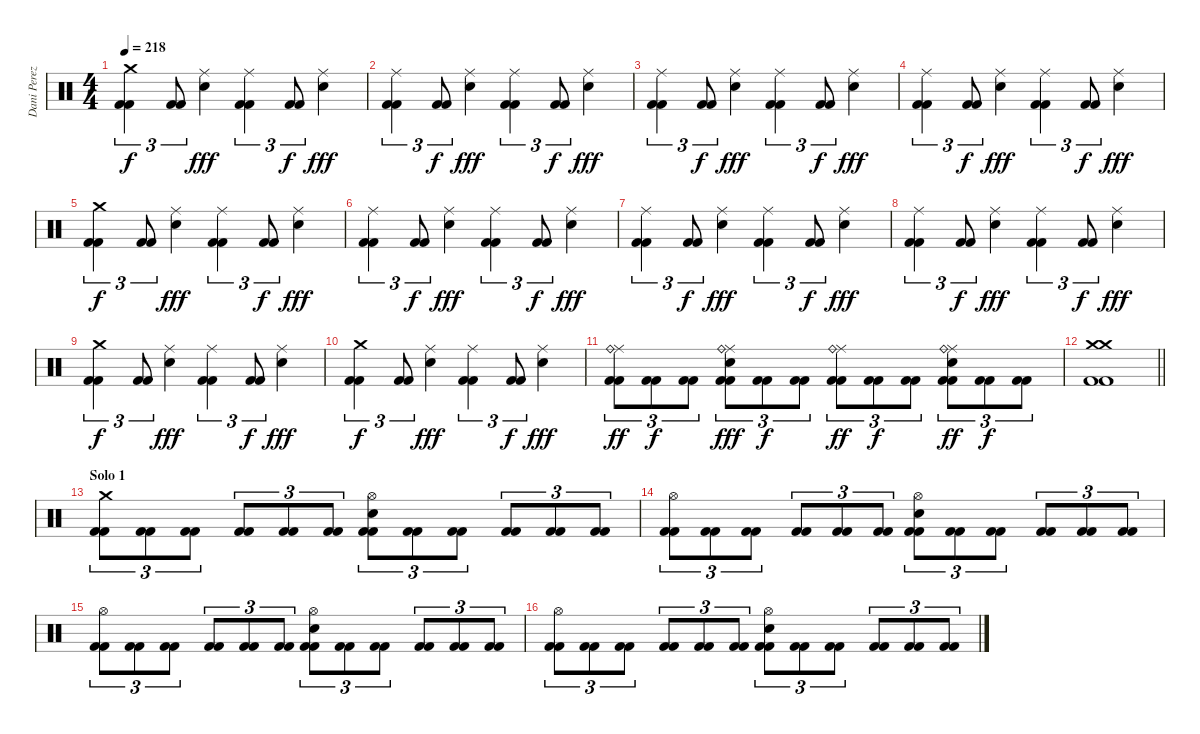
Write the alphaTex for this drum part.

\track ("Dani Perez" "Dani Perez") {instrument percussion}
\staff {score}
\articulation defaults
\ts (4 4)
\tempo 218
\clef neutral
\ks c
("Crash medium (hit)" "Kick (hit) 2" "Kick (hit) 2").4{tu (3 2) dy f} ("Kick (hit) 2" "Kick (hit) 2").8{tu (3 2)} ("Ride (middle)" "Snare (hit) 2").4{dy fff} ("Ride (middle)" "Kick (hit) 2" "Kick (hit) 2").4{tu (3 2)} ("Kick (hit) 2" "Kick (hit) 2").8{tu (3 2) dy f} ("Ride (middle)" "Snare (hit) 2").4{dy fff} |
("Ride (middle)" "Kick (hit) 2" "Kick (hit) 2").4{tu (3 2)} ("Kick (hit) 2" "Kick (hit) 2").8{tu (3 2) dy f} ("Ride (middle)" "Snare (hit) 2").4{dy fff} ("Ride (middle)" "Kick (hit) 2" "Kick (hit) 2").4{tu (3 2)} ("Kick (hit) 2" "Kick (hit) 2").8{tu (3 2) dy f} ("Ride (middle)" "Snare (hit) 2").4{dy fff} |
("Ride (middle)" "Kick (hit) 2" "Kick (hit) 2").4{tu (3 2)} ("Kick (hit) 2" "Kick (hit) 2").8{tu (3 2) dy f} ("Ride (middle)" "Snare (hit) 2").4{dy fff} ("Ride (middle)" "Kick (hit) 2" "Kick (hit) 2").4{tu (3 2)} ("Kick (hit) 2" "Kick (hit) 2").8{tu (3 2) dy f} ("Ride (middle)" "Snare (hit) 2").4{dy fff} |
("Ride (middle)" "Kick (hit) 2" "Kick (hit) 2").4{tu (3 2)} ("Kick (hit) 2" "Kick (hit) 2").8{tu (3 2) dy f} ("Ride (middle)" "Snare (hit) 2").4{dy fff} ("Ride (middle)" "Kick (hit) 2" "Kick (hit) 2").4{tu (3 2)} ("Kick (hit) 2" "Kick (hit) 2").8{tu (3 2) dy f} ("Ride (middle)" "Snare (hit) 2").4{dy fff} |
("Crash medium (hit)" "Kick (hit) 2" "Kick (hit) 2").4{tu (3 2) dy f} ("Kick (hit) 2" "Kick (hit) 2").8{tu (3 2)} ("Ride (middle)" "Snare (hit) 2").4{dy fff} ("Ride (middle)" "Kick (hit) 2" "Kick (hit) 2").4{tu (3 2)} ("Kick (hit) 2" "Kick (hit) 2").8{tu (3 2) dy f} ("Ride (middle)" "Snare (hit) 2").4{dy fff} |
("Ride (middle)" "Kick (hit) 2" "Kick (hit) 2").4{tu (3 2)} ("Kick (hit) 2" "Kick (hit) 2").8{tu (3 2) dy f} ("Ride (middle)" "Snare (hit) 2").4{dy fff} ("Ride (middle)" "Kick (hit) 2" "Kick (hit) 2").4{tu (3 2)} ("Kick (hit) 2" "Kick (hit) 2").8{tu (3 2) dy f} ("Ride (middle)" "Snare (hit) 2").4{dy fff} |
("Ride (middle)" "Kick (hit) 2" "Kick (hit) 2").4{tu (3 2)} ("Kick (hit) 2" "Kick (hit) 2").8{tu (3 2) dy f} ("Ride (middle)" "Snare (hit) 2").4{dy fff} ("Ride (middle)" "Kick (hit) 2" "Kick (hit) 2").4{tu (3 2)} ("Kick (hit) 2" "Kick (hit) 2").8{tu (3 2) dy f} ("Ride (middle)" "Snare (hit) 2").4{dy fff} |
("Ride (middle)" "Kick (hit) 2" "Kick (hit) 2").4{tu (3 2)} ("Kick (hit) 2" "Kick (hit) 2").8{tu (3 2) dy f} ("Ride (middle)" "Snare (hit) 2").4{dy fff} ("Ride (middle)" "Kick (hit) 2" "Kick (hit) 2").4{tu (3 2)} ("Kick (hit) 2" "Kick (hit) 2").8{tu (3 2) dy f} ("Ride (middle)" "Snare (hit) 2").4{dy fff} |
("Crash medium (hit)" "Kick (hit) 2" "Kick (hit) 2").4{tu (3 2) dy f} ("Kick (hit) 2" "Kick (hit) 2").8{tu (3 2)} ("Ride (middle)" "Snare (hit) 2").4{dy fff} ("Ride (middle)" "Kick (hit) 2" "Kick (hit) 2").4{tu (3 2)} ("Kick (hit) 2" "Kick (hit) 2").8{tu (3 2) dy f} ("Ride (middle)" "Snare (hit) 2").4{dy fff} |
("Crash medium (hit)" "Kick (hit) 2" "Kick (hit) 2").4{tu (3 2) dy f} ("Kick (hit) 2" "Kick (hit) 2").8{tu (3 2)} ("Ride (middle)" "Snare (hit) 2").4{dy fff} ("Ride (middle)" "Kick (hit) 2" "Kick (hit) 2").4{tu (3 2)} ("Kick (hit) 2" "Kick (hit) 2").8{tu (3 2) dy f} ("Ride (middle)" "Snare (hit) 2").4{dy fff} |
("Ride (middle)" "Ride (bell)" "Kick (hit) 2" "Kick (hit) 2").8{tu (3 2) dy ff} ("Kick (hit) 2" "Kick (hit) 2").8{tu (3 2) dy f} ("Kick (hit) 2" "Kick (hit) 2").8{tu (3 2)} ("Ride (middle)" "Ride (bell)" "Snare (hit) 2" "Kick (hit) 2" "Kick (hit) 2").8{tu (3 2) dy fff} ("Kick (hit) 2" "Kick (hit) 2").8{tu (3 2) dy f} ("Kick (hit) 2" "Kick (hit) 2").8{tu (3 2)} ("Ride (middle)" "Ride (bell)" "Kick (hit) 2" "Kick (hit) 2").8{tu (3 2) dy ff} ("Kick (hit) 2" "Kick (hit) 2").8{tu (3 2) dy f} ("Kick (hit) 2" "Kick (hit) 2").8{tu (3 2)} ("Ride (middle)" "Ride (bell)" "Snare (hit) 2" "Kick (hit) 2" "Kick (hit) 2").8{tu (3 2) dy ff} ("Kick (hit) 2" "Kick (hit) 2").8{tu (3 2) dy f} ("Kick (hit) 2" "Kick (hit) 2").8{tu (3 2)} |
\barLineRight lightlight
("Crash medium (hit)" "Crash medium (hit)" "Kick (hit) 2" "Kick (hit) 2").1 |
\section ("" "Solo 1")
("Crash medium (hit)" "Kick (hit) 2" "Kick (hit) 2").8{tu (3 2)} ("Kick (hit) 2" "Kick (hit) 2").8{tu (3 2)} ("Kick (hit) 2" "Kick (hit) 2").8{tu (3 2)} ("Kick (hit) 2" "Kick (hit) 2").8{tu (3 2)} ("Kick (hit) 2" "Kick (hit) 2").8{tu (3 2)} ("Kick (hit) 2" "Kick (hit) 2").8{tu (3 2)} ("Hi-Hat (open)" "Snare (hit) 2" "Kick (hit) 2" "Kick (hit) 2").8{tu (3 2)} ("Kick (hit) 2" "Kick (hit) 2").8{tu (3 2)} ("Kick (hit) 2" "Kick (hit) 2").8{tu (3 2)} ("Kick (hit) 2" "Kick (hit) 2").8{tu (3 2)} ("Kick (hit) 2" "Kick (hit) 2").8{tu (3 2)} ("Kick (hit) 2" "Kick (hit) 2").8{tu (3 2)} |
("Hi-Hat (open)" "Kick (hit) 2" "Kick (hit) 2").8{tu (3 2)} ("Kick (hit) 2" "Kick (hit) 2").8{tu (3 2)} ("Kick (hit) 2" "Kick (hit) 2").8{tu (3 2)} ("Kick (hit) 2" "Kick (hit) 2").8{tu (3 2)} ("Kick (hit) 2" "Kick (hit) 2").8{tu (3 2)} ("Kick (hit) 2" "Kick (hit) 2").8{tu (3 2)} ("Hi-Hat (open)" "Snare (hit) 2" "Kick (hit) 2" "Kick (hit) 2").8{tu (3 2)} ("Kick (hit) 2" "Kick (hit) 2").8{tu (3 2)} ("Kick (hit) 2" "Kick (hit) 2").8{tu (3 2)} ("Kick (hit) 2" "Kick (hit) 2").8{tu (3 2)} ("Kick (hit) 2" "Kick (hit) 2").8{tu (3 2)} ("Kick (hit) 2" "Kick (hit) 2").8{tu (3 2)} |
("Hi-Hat (open)" "Kick (hit) 2" "Kick (hit) 2").8{tu (3 2)} ("Kick (hit) 2" "Kick (hit) 2").8{tu (3 2)} ("Kick (hit) 2" "Kick (hit) 2").8{tu (3 2)} ("Kick (hit) 2" "Kick (hit) 2").8{tu (3 2)} ("Kick (hit) 2" "Kick (hit) 2").8{tu (3 2)} ("Kick (hit) 2" "Kick (hit) 2").8{tu (3 2)} ("Hi-Hat (open)" "Snare (hit) 2" "Kick (hit) 2" "Kick (hit) 2").8{tu (3 2)} ("Kick (hit) 2" "Kick (hit) 2").8{tu (3 2)} ("Kick (hit) 2" "Kick (hit) 2").8{tu (3 2)} ("Kick (hit) 2" "Kick (hit) 2").8{tu (3 2)} ("Kick (hit) 2" "Kick (hit) 2").8{tu (3 2)} ("Kick (hit) 2" "Kick (hit) 2").8{tu (3 2)} |
("Hi-Hat (open)" "Kick (hit) 2" "Kick (hit) 2").8{tu (3 2)} ("Kick (hit) 2" "Kick (hit) 2").8{tu (3 2)} ("Kick (hit) 2" "Kick (hit) 2").8{tu (3 2)} ("Kick (hit) 2" "Kick (hit) 2").8{tu (3 2)} ("Kick (hit) 2" "Kick (hit) 2").8{tu (3 2)} ("Kick (hit) 2" "Kick (hit) 2").8{tu (3 2)} ("Hi-Hat (open)" "Snare (hit) 2" "Kick (hit) 2" "Kick (hit) 2").8{tu (3 2)} ("Kick (hit) 2" "Kick (hit) 2").8{tu (3 2)} ("Kick (hit) 2" "Kick (hit) 2").8{tu (3 2)} ("Kick (hit) 2" "Kick (hit) 2").8{tu (3 2)} ("Kick (hit) 2" "Kick (hit) 2").8{tu (3 2)} ("Kick (hit) 2" "Kick (hit) 2").8{tu (3 2)}
